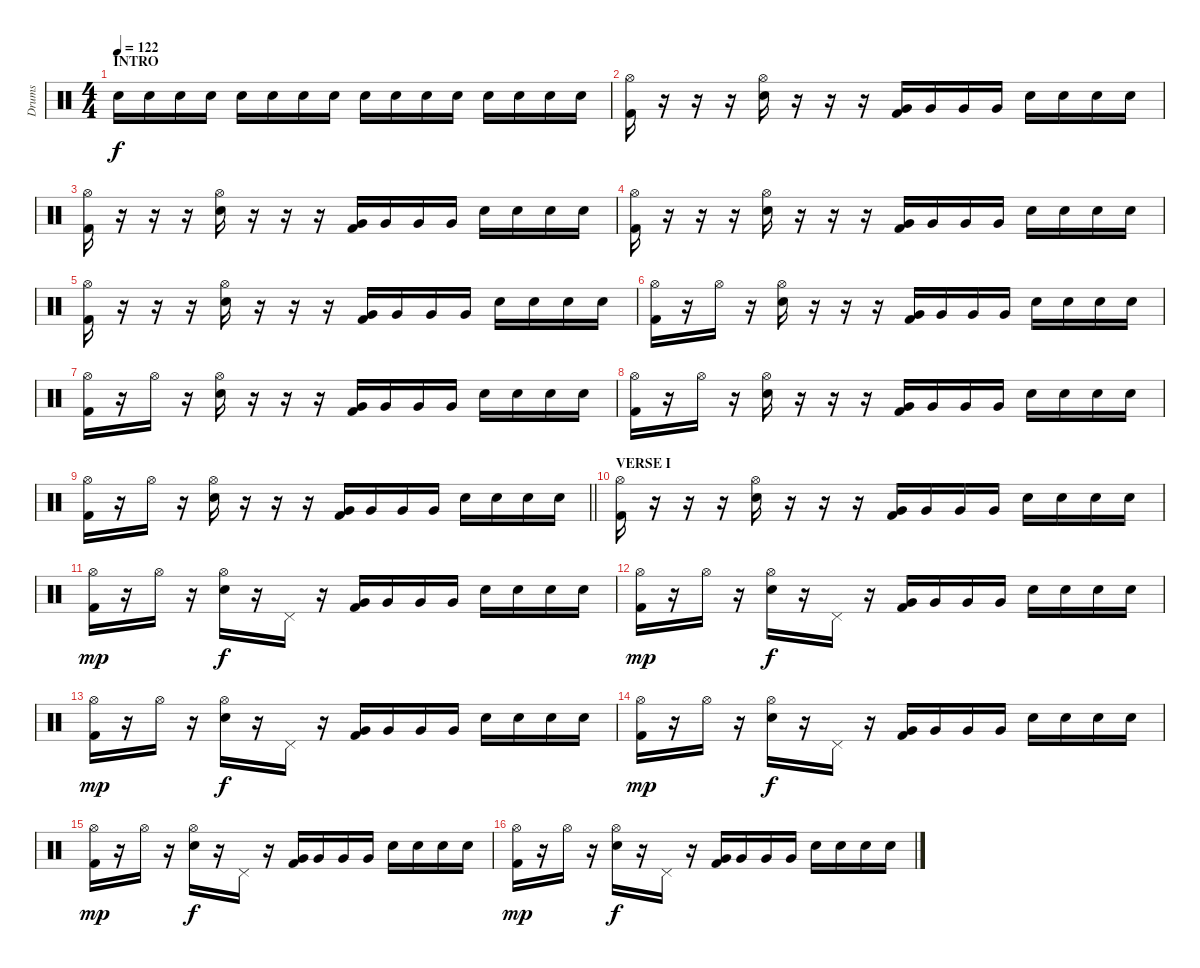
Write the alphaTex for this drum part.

\track ("Drums" "Drums") {instrument percussion}
\staff {score}
\articulation defaults
\ts (4 4)
\section ("" "INTRO")
\tempo 122
\clef neutral
\ks c "Electric Snare (hit)".16{dy f} "Electric Snare (hit)".16 "Electric Snare (hit)".16 "Electric Snare (hit)".16 "Electric Snare (hit)".16 "Electric Snare (hit)".16 "Electric Snare (hit)".16 "Electric Snare (hit)".16 "Electric Snare (hit)".16 "Electric Snare (hit)".16 "Electric Snare (hit)".16 "Electric Snare (hit)".16 "Electric Snare (hit)".16 "Electric Snare (hit)".16 "Electric Snare (hit)".16 "Electric Snare (hit)".16
|
("Hi-Hat (open)" "Kick (hit) 2").16 r.16 r.16 r.16 ("Hi-Hat (open)" "Electric Snare (hit)").16 r.16 r.16 r.16 ("Very Low Tom (hit)" "Kick (hit) 2").16 "Very Low Tom (hit)".16 "Very Low Tom (hit)".16 "Very Low Tom (hit)".16 "Electric Snare (hit)".16 "Electric Snare (hit)".16 "Electric Snare (hit)".16 "Electric Snare (hit)".16 |
("Hi-Hat (open)" "Kick (hit) 2").16 r.16 r.16 r.16 ("Hi-Hat (open)" "Electric Snare (hit)").16 r.16 r.16 r.16 ("Very Low Tom (hit)" "Kick (hit) 2").16 "Very Low Tom (hit)".16 "Very Low Tom (hit)".16 "Very Low Tom (hit)".16 "Electric Snare (hit)".16 "Electric Snare (hit)".16 "Electric Snare (hit)".16 "Electric Snare (hit)".16 |
("Hi-Hat (open)" "Kick (hit) 2").16 r.16 r.16 r.16 ("Hi-Hat (open)" "Electric Snare (hit)").16 r.16 r.16 r.16 ("Very Low Tom (hit)" "Kick (hit) 2").16 "Very Low Tom (hit)".16 "Very Low Tom (hit)".16 "Very Low Tom (hit)".16 "Electric Snare (hit)".16 "Electric Snare (hit)".16 "Electric Snare (hit)".16 "Electric Snare (hit)".16 |
("Hi-Hat (open)" "Kick (hit) 2").16 r.16 r.16 r.16 ("Hi-Hat (open)" "Electric Snare (hit)").16 r.16 r.16 r.16 ("Very Low Tom (hit)" "Kick (hit) 2").16 "Very Low Tom (hit)".16 "Very Low Tom (hit)".16 "Very Low Tom (hit)".16 "Electric Snare (hit)".16 "Electric Snare (hit)".16 "Electric Snare (hit)".16 "Electric Snare (hit)".16 |
("Hi-Hat (open)" "Kick (hit) 2").16 r.16 "Hi-Hat (open)".16 r.16 ("Hi-Hat (open)" "Electric Snare (hit)").16 r.16 r.16 r.16 ("Very Low Tom (hit)" "Kick (hit) 2").16 "Very Low Tom (hit)".16 "Very Low Tom (hit)".16 "Very Low Tom (hit)".16 "Electric Snare (hit)".16 "Electric Snare (hit)".16 "Electric Snare (hit)".16 "Electric Snare (hit)".16 |
("Hi-Hat (open)" "Kick (hit) 2").16 r.16 "Hi-Hat (open)".16 r.16 ("Hi-Hat (open)" "Electric Snare (hit)").16 r.16 r.16 r.16 ("Very Low Tom (hit)" "Kick (hit) 2").16 "Very Low Tom (hit)".16 "Very Low Tom (hit)".16 "Very Low Tom (hit)".16 "Electric Snare (hit)".16 "Electric Snare (hit)".16 "Electric Snare (hit)".16 "Electric Snare (hit)".16 |
("Hi-Hat (open)" "Kick (hit) 2").16 r.16 "Hi-Hat (open)".16 r.16 ("Hi-Hat (open)" "Electric Snare (hit)").16 r.16 r.16 r.16 ("Very Low Tom (hit)" "Kick (hit) 2").16 "Very Low Tom (hit)".16 "Very Low Tom (hit)".16 "Very Low Tom (hit)".16 "Electric Snare (hit)".16 "Electric Snare (hit)".16 "Electric Snare (hit)".16 "Electric Snare (hit)".16 |
\barLineRight lightlight
("Hi-Hat (open)" "Kick (hit) 2").16 r.16 "Hi-Hat (open)".16 r.16 ("Hi-Hat (open)" "Electric Snare (hit)").16 r.16 r.16 r.16 ("Very Low Tom (hit)" "Kick (hit) 2").16 "Very Low Tom (hit)".16 "Very Low Tom (hit)".16 "Very Low Tom (hit)".16 "Electric Snare (hit)".16 "Electric Snare (hit)".16 "Electric Snare (hit)".16 "Electric Snare (hit)".16 |
\section ("" "VERSE I")
("Hi-Hat (open)" "Kick (hit) 2").16 r.16 r.16 r.16 ("Hi-Hat (open)" "Electric Snare (hit)").16 r.16 r.16 r.16 ("Very Low Tom (hit)" "Kick (hit) 2").16 "Very Low Tom (hit)".16 "Very Low Tom (hit)".16 "Very Low Tom (hit)".16 "Electric Snare (hit)".16 "Electric Snare (hit)".16 "Electric Snare (hit)".16 "Electric Snare (hit)".16 |
("Hi-Hat (open)" "Kick (hit) 2").16{dy mp} r.16 "Hi-Hat (open)".16 r.16 ("Hi-Hat (open)" "Electric Snare (hit)").16{dy f} r.16 "Pedal Hi-Hat (hit)".16 r.16 ("Very Low Tom (hit)" "Kick (hit) 2").16 "Very Low Tom (hit)".16 "Very Low Tom (hit)".16 "Very Low Tom (hit)".16 "Electric Snare (hit)".16 "Electric Snare (hit)".16 "Electric Snare (hit)".16 "Electric Snare (hit)".16 |
("Hi-Hat (open)" "Kick (hit) 2").16{dy mp} r.16 "Hi-Hat (open)".16 r.16 ("Hi-Hat (open)" "Electric Snare (hit)").16{dy f} r.16 "Pedal Hi-Hat (hit)".16 r.16 ("Very Low Tom (hit)" "Kick (hit) 2").16 "Very Low Tom (hit)".16 "Very Low Tom (hit)".16 "Very Low Tom (hit)".16 "Electric Snare (hit)".16 "Electric Snare (hit)".16 "Electric Snare (hit)".16 "Electric Snare (hit)".16 |
("Hi-Hat (open)" "Kick (hit) 2").16{dy mp} r.16 "Hi-Hat (open)".16 r.16 ("Hi-Hat (open)" "Electric Snare (hit)").16{dy f} r.16 "Pedal Hi-Hat (hit)".16 r.16 ("Very Low Tom (hit)" "Kick (hit) 2").16 "Very Low Tom (hit)".16 "Very Low Tom (hit)".16 "Very Low Tom (hit)".16 "Electric Snare (hit)".16 "Electric Snare (hit)".16 "Electric Snare (hit)".16 "Electric Snare (hit)".16 |
("Hi-Hat (open)" "Kick (hit) 2").16{dy mp} r.16 "Hi-Hat (open)".16 r.16 ("Hi-Hat (open)" "Electric Snare (hit)").16{dy f} r.16 "Pedal Hi-Hat (hit)".16 r.16 ("Very Low Tom (hit)" "Kick (hit) 2").16 "Very Low Tom (hit)".16 "Very Low Tom (hit)".16 "Very Low Tom (hit)".16 "Electric Snare (hit)".16 "Electric Snare (hit)".16 "Electric Snare (hit)".16 "Electric Snare (hit)".16 |
("Hi-Hat (open)" "Kick (hit) 2").16{dy mp} r.16 "Hi-Hat (open)".16 r.16 ("Hi-Hat (open)" "Electric Snare (hit)").16{dy f} r.16 "Pedal Hi-Hat (hit)".16 r.16 ("Very Low Tom (hit)" "Kick (hit) 2").16 "Very Low Tom (hit)".16 "Very Low Tom (hit)".16 "Very Low Tom (hit)".16 "Electric Snare (hit)".16 "Electric Snare (hit)".16 "Electric Snare (hit)".16 "Electric Snare (hit)".16 |
("Hi-Hat (open)" "Kick (hit) 2").16{dy mp} r.16 "Hi-Hat (open)".16 r.16 ("Hi-Hat (open)" "Electric Snare (hit)").16{dy f} r.16 "Pedal Hi-Hat (hit)".16 r.16 ("Very Low Tom (hit)" "Kick (hit) 2").16 "Very Low Tom (hit)".16 "Very Low Tom (hit)".16 "Very Low Tom (hit)".16 "Electric Snare (hit)".16 "Electric Snare (hit)".16 "Electric Snare (hit)".16 "Electric Snare (hit)".16
